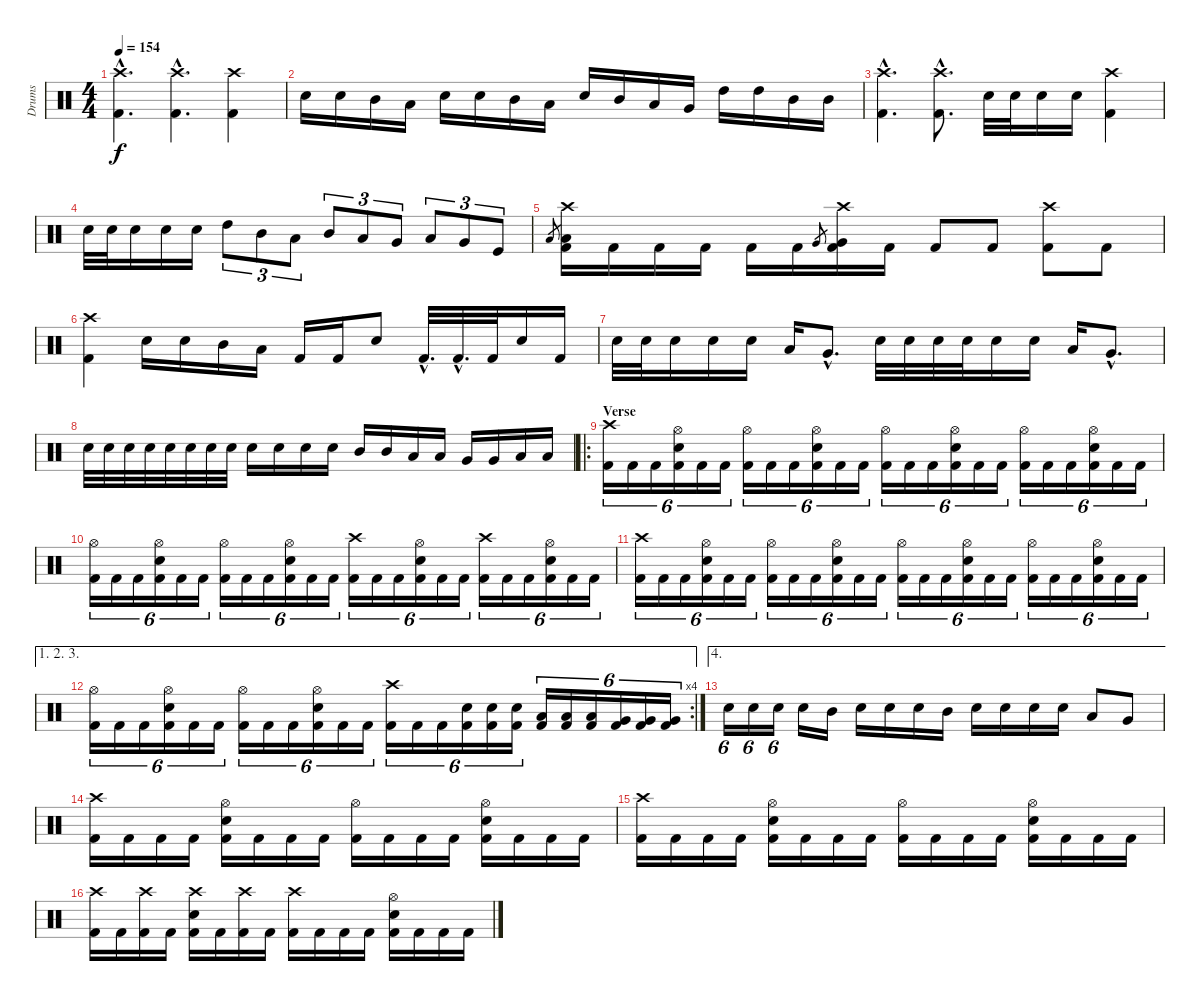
\track ("Drums" "Drums") {instrument percussion}
\staff {score}
\articulation defaults
\ts (4 4)
\tempo 154
\clef neutral
\ks c
("Crash high (hit)"{hac} "Kick (hit) 2"{hac}).4{d dy f} ("Crash high (hit)"{hac} "Kick (hit) 2"{hac}).4{d} ("Crash high (hit)" "Kick (hit) 2").4 |
"Electric Snare (hit)".16 "Electric Snare (hit)".16 "Mid Tom (hit)".16 "Low Tom (hit)".16 "Electric Snare (hit)".16 "Electric Snare (hit)".16 "Mid Tom (hit)".16 "Low Tom (hit)".16 "Electric Snare (hit)".16 "Mid Tom (hit)".16 "Low Tom (hit)".16 "Very Low Tom (hit)".16 "High Tom (hit)".16 "High Tom (hit)".16 "Mid Tom (hit)".16 "Mid Tom (hit)".16 |
("Crash high (hit)"{hac} "Kick (hit) 2"{hac}).4{d} ("Crash high (hit)"{hac} "Kick (hit) 2"{hac}).8{d} "Electric Snare (hit)".32 "Electric Snare (hit)".32 "Electric Snare (hit)".16 "Electric Snare (hit)".16 ("Crash high (hit)" "Kick (hit) 2").4 |
"Electric Snare (hit)".32 "Electric Snare (hit)".32 "Electric Snare (hit)".16 "Electric Snare (hit)".16 "Electric Snare (hit)".16 "High Tom (hit)".8{tu (3 2)} "Mid Tom (hit)".8{tu (3 2)} "Low Tom (hit)".8{tu (3 2)} "Mid Tom (hit)".8{tu (3 2)} "Low Tom (hit)".8{tu (3 2)} "Very Low Tom (hit)".8{tu (3 2)} "Low Tom (hit)".8{tu (3 2)} "Very Low Tom (hit)".8{tu (3 2)} "Kick (hit)".8{tu (3 2)} |
"Low Tom (hit)".8{gr} ("Crash high (hit)" "Low Tom (hit)" "Kick (hit) 2").16 "Kick (hit) 2".16 "Kick (hit) 2".16 "Kick (hit) 2".16 "Kick (hit) 2".16 "Kick (hit) 2".16 "Very Low Tom (hit)".8{gr} ("Crash high (hit)" "Very Low Tom (hit)" "Kick (hit) 2").16 "Kick (hit) 2".16 "Kick (hit) 2".8 "Kick (hit) 2".8 ("Crash high (hit)" "Kick (hit) 2").8 "Kick (hit) 2".8 |
("Crash high (hit)" "Kick (hit) 2").4 "Electric Snare (hit)".16 "Electric Snare (hit)".16 "Mid Tom (hit)".16 "Low Tom (hit)".16 "Kick (hit) 2".16 "Kick (hit) 2".16 "Electric Snare (hit)".8 "Kick (hit) 2"{hac}.32{d} "Kick (hit) 2"{hac}.32{d} "Kick (hit) 2".32 "Electric Snare (hit)".16 "Kick (hit) 2".16 |
"Electric Snare (hit)".32 "Electric Snare (hit)".32 "Electric Snare (hit)".16 "Electric Snare (hit)".16 "Electric Snare (hit)".16 "Low Tom (hit)".16 "Very Low Tom (hit)"{hac}.8{d} "Electric Snare (hit)".32 "Electric Snare (hit)".32 "Electric Snare (hit)".32 "Electric Snare (hit)".32 "Electric Snare (hit)".16 "Electric Snare (hit)".16 "Low Tom (hit)".16 "Very Low Tom (hit)"{hac}.8{d} |
"Electric Snare (hit)".32 "Electric Snare (hit)".32 "Electric Snare (hit)".32 "Electric Snare (hit)".32 "Electric Snare (hit)".32 "Electric Snare (hit)".32 "Electric Snare (hit)".32 "Electric Snare (hit)".32 "Electric Snare (hit)".16 "Electric Snare (hit)".16 "Electric Snare (hit)".16 "Electric Snare (hit)".16 "Mid Tom (hit)".16 "Mid Tom (hit)".16 "Low Tom (hit)".16 "Low Tom (hit)".16 "Very Low Tom (hit)".16 "Very Low Tom (hit)".16 "Low Floor Tom (hit)".16 "Low Floor Tom (hit)".16 |
\ro
\section ("" "Verse")
("Crash high (hit)" "Kick (hit) 2").16{tu (6 4)} "Kick (hit) 2".16{tu (6 4)} "Kick (hit) 2".16{tu (6 4)} ("Hi-Hat (open)" "Electric Snare (hit)" "Kick (hit) 2").16{tu (6 4)} "Kick (hit) 2".16{tu (6 4)} "Kick (hit) 2".16{tu (6 4)} ("Hi-Hat (open)" "Kick (hit) 2").16{tu (6 4)} "Kick (hit) 2".16{tu (6 4)} "Kick (hit) 2".16{tu (6 4)} ("Hi-Hat (open)" "Electric Snare (hit)" "Kick (hit) 2").16{tu (6 4)} "Kick (hit) 2".16{tu (6 4)} "Kick (hit) 2".16{tu (6 4)} ("Hi-Hat (open)" "Kick (hit) 2").16{tu (6 4)} "Kick (hit) 2".16{tu (6 4)} "Kick (hit) 2".16{tu (6 4)} ("Hi-Hat (open)" "Electric Snare (hit)" "Kick (hit) 2").16{tu (6 4)} "Kick (hit) 2".16{tu (6 4)} "Kick (hit) 2".16{tu (6 4)} ("Hi-Hat (open)" "Kick (hit) 2").16{tu (6 4)} "Kick (hit) 2".16{tu (6 4)} "Kick (hit) 2".16{tu (6 4)} ("Hi-Hat (open)" "Electric Snare (hit)" "Kick (hit) 2").16{tu (6 4)} "Kick (hit) 2".16{tu (6 4)} "Kick (hit) 2".16{tu (6 4)} |
("Hi-Hat (open)" "Kick (hit) 2").16{tu (6 4)} "Kick (hit) 2".16{tu (6 4)} "Kick (hit) 2".16{tu (6 4)} ("Hi-Hat (open)" "Electric Snare (hit)" "Kick (hit) 2").16{tu (6 4)} "Kick (hit) 2".16{tu (6 4)} "Kick (hit) 2".16{tu (6 4)} ("Hi-Hat (open)" "Kick (hit) 2").16{tu (6 4)} "Kick (hit) 2".16{tu (6 4)} "Kick (hit) 2".16{tu (6 4)} ("Hi-Hat (open)" "Electric Snare (hit)" "Kick (hit) 2").16{tu (6 4)} "Kick (hit) 2".16{tu (6 4)} "Kick (hit) 2".16{tu (6 4)} ("Crash high (hit)" "Kick (hit) 2").16{tu (6 4)} "Kick (hit) 2".16{tu (6 4)} "Kick (hit) 2".16{tu (6 4)} ("Hi-Hat (open)" "Electric Snare (hit)" "Kick (hit) 2").16{tu (6 4)} "Kick (hit) 2".16{tu (6 4)} "Kick (hit) 2".16{tu (6 4)} ("Crash high (hit)" "Kick (hit) 2").16{tu (6 4)} "Kick (hit) 2".16{tu (6 4)} "Kick (hit) 2".16{tu (6 4)} ("Hi-Hat (open)" "Electric Snare (hit)" "Kick (hit) 2").16{tu (6 4)} "Kick (hit) 2".16{tu (6 4)} "Kick (hit) 2".16{tu (6 4)} |
("Crash high (hit)" "Kick (hit) 2").16{tu (6 4)} "Kick (hit) 2".16{tu (6 4)} "Kick (hit) 2".16{tu (6 4)} ("Hi-Hat (open)" "Electric Snare (hit)" "Kick (hit) 2").16{tu (6 4)} "Kick (hit) 2".16{tu (6 4)} "Kick (hit) 2".16{tu (6 4)} ("Hi-Hat (open)" "Kick (hit) 2").16{tu (6 4)} "Kick (hit) 2".16{tu (6 4)} "Kick (hit) 2".16{tu (6 4)} ("Hi-Hat (open)" "Electric Snare (hit)" "Kick (hit) 2").16{tu (6 4)} "Kick (hit) 2".16{tu (6 4)} "Kick (hit) 2".16{tu (6 4)} ("Hi-Hat (open)" "Kick (hit) 2").16{tu (6 4)} "Kick (hit) 2".16{tu (6 4)} "Kick (hit) 2".16{tu (6 4)} ("Hi-Hat (open)" "Electric Snare (hit)" "Kick (hit) 2").16{tu (6 4)} "Kick (hit) 2".16{tu (6 4)} "Kick (hit) 2".16{tu (6 4)} ("Hi-Hat (open)" "Kick (hit) 2").16{tu (6 4)} "Kick (hit) 2".16{tu (6 4)} "Kick (hit) 2".16{tu (6 4)} ("Hi-Hat (open)" "Electric Snare (hit)" "Kick (hit) 2").16{tu (6 4)} "Kick (hit) 2".16{tu (6 4)} "Kick (hit) 2".16{tu (6 4)} |
\ae (1 2 3)
\rc 4
("Hi-Hat (open)" "Kick (hit) 2").16{tu (6 4)} "Kick (hit) 2".16{tu (6 4)} "Kick (hit) 2".16{tu (6 4)} ("Hi-Hat (open)" "Electric Snare (hit)" "Kick (hit) 2").16{tu (6 4)} "Kick (hit) 2".16{tu (6 4)} "Kick (hit) 2".16{tu (6 4)} ("Hi-Hat (open)" "Kick (hit) 2").16{tu (6 4)} "Kick (hit) 2".16{tu (6 4)} "Kick (hit) 2".16{tu (6 4)} ("Hi-Hat (open)" "Electric Snare (hit)" "Kick (hit) 2").16{tu (6 4)} "Kick (hit) 2".16{tu (6 4)} "Kick (hit) 2".16{tu (6 4)} ("Crash high (hit)" "Kick (hit) 2").16{tu (6 4)} "Kick (hit) 2".16{tu (6 4)} "Kick (hit) 2".16{tu (6 4)} ("Electric Snare (hit)" "Kick (hit) 2").16{tu (6 4)} ("Electric Snare (hit)" "Kick (hit) 2").16{tu (6 4)} ("Electric Snare (hit)" "Kick (hit) 2").16{tu (6 4)} ("Low Tom (hit)" "Kick (hit) 2").16{tu (6 4)} ("Low Tom (hit)" "Kick (hit) 2").16{tu (6 4)} ("Low Tom (hit)" "Kick (hit) 2").16{tu (6 4)} ("Very Low Tom (hit)" "Kick (hit) 2").16{tu (6 4)} ("Very Low Tom (hit)" "Kick (hit) 2").16{tu (6 4)} ("Very Low Tom (hit)" "Kick (hit) 2").16{tu (6 4)} |
\ae 4 "Electric Snare (hit)".16{tu (6 4)} "Electric Snare (hit)".16{tu (6 4)} "Electric Snare (hit)".16{tu (6 4)} "Electric Snare (hit)".16 "Mid Tom (hit)".16 "Electric Snare (hit)".16 "Electric Snare (hit)".16 "Electric Snare (hit)".16 "Mid Tom (hit)".16 "Electric Snare (hit)".16 "Electric Snare (hit)".16 "Electric Snare (hit)".16 "Electric Snare (hit)".16 "Low Tom (hit)".8 "Very Low Tom (hit)".8
|
("Crash high (hit)" "Kick (hit) 2").16 "Kick (hit) 2".16 "Kick (hit) 2".16 "Kick (hit) 2".16 ("Hi-Hat (open)" "Electric Snare (hit)" "Kick (hit) 2").16 "Kick (hit) 2".16 "Kick (hit) 2".16 "Kick (hit) 2".16 ("Hi-Hat (open)" "Kick (hit) 2").16 "Kick (hit) 2".16 "Kick (hit) 2".16 "Kick (hit) 2".16 ("Hi-Hat (open)" "Electric Snare (hit)" "Kick (hit) 2").16 "Kick (hit) 2".16 "Kick (hit) 2".16 "Kick (hit) 2".16 |
("Crash high (hit)" "Kick (hit) 2").16 "Kick (hit) 2".16 "Kick (hit) 2".16 "Kick (hit) 2".16 ("Hi-Hat (open)" "Electric Snare (hit)" "Kick (hit) 2").16 "Kick (hit) 2".16 "Kick (hit) 2".16 "Kick (hit) 2".16 ("Hi-Hat (open)" "Kick (hit) 2").16 "Kick (hit) 2".16 "Kick (hit) 2".16 "Kick (hit) 2".16 ("Hi-Hat (open)" "Electric Snare (hit)" "Kick (hit) 2").16 "Kick (hit) 2".16 "Kick (hit) 2".16 "Kick (hit) 2".16 |
("Crash high (hit)" "Kick (hit) 2").16 "Kick (hit) 2".16 ("Crash high (hit)" "Kick (hit) 2").16 "Kick (hit) 2".16 ("Crash high (hit)" "Electric Snare (hit)" "Kick (hit) 2").16 "Kick (hit) 2".16 ("Crash high (hit)" "Kick (hit) 2").16 "Kick (hit) 2".16 ("Crash high (hit)" "Kick (hit) 2").16 "Kick (hit) 2".16 "Kick (hit) 2".16 "Kick (hit) 2".16 ("Hi-Hat (open)" "Electric Snare (hit)" "Kick (hit) 2").16 "Kick (hit) 2".16 "Kick (hit) 2".16 "Kick (hit) 2".16
